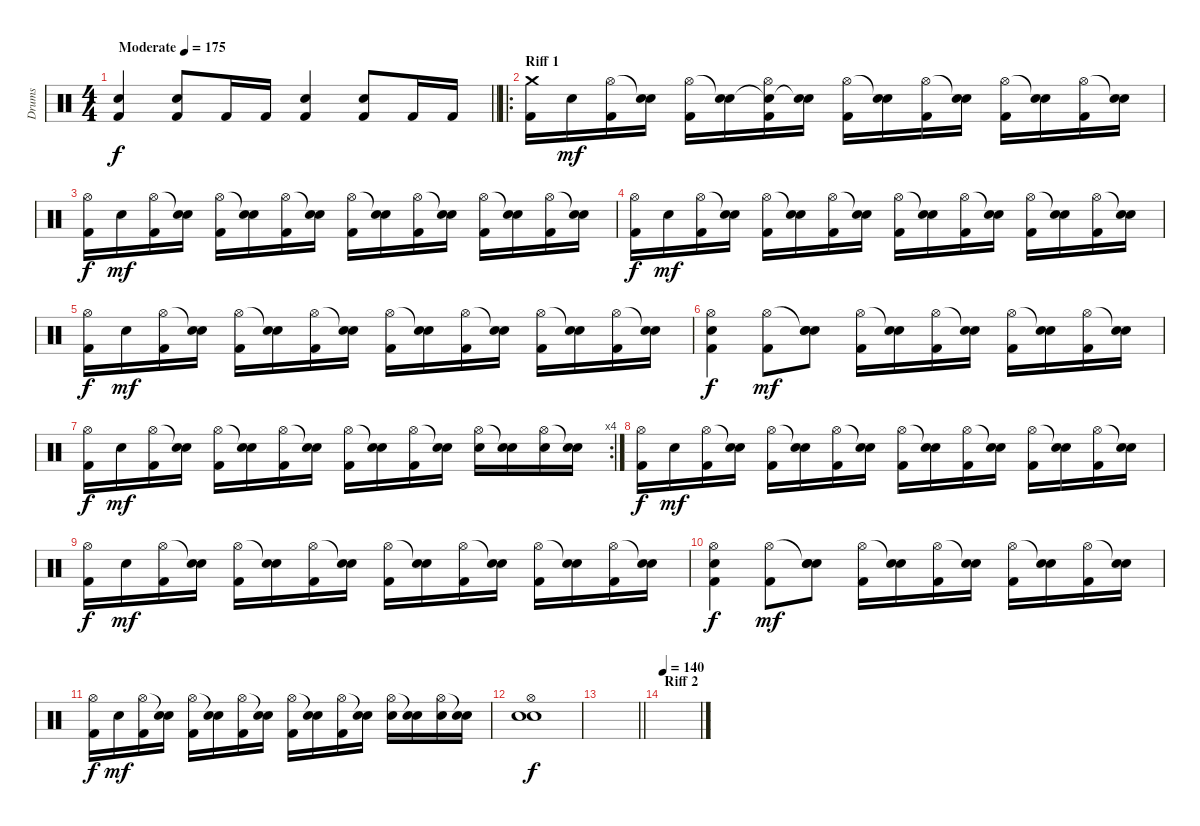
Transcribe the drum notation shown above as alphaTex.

\track ("Drums" "Drums") {instrument percussion}
\staff {score}
\articulation defaults
\ts (4 4)
\tempo (175 "Moderate")
\clef neutral
\barLineRight lightlight
\ks c
("Snare (hit) 2" "Kick (hit) 2").4{dy f} ("Snare (hit) 2" "Kick (hit) 2").8 "Kick (hit) 2".16 "Kick (hit) 2".16 ("Snare (hit) 2" "Kick (hit) 2").4 ("Snare (hit) 2" "Kick (hit) 2").8 "Kick (hit) 2".16 "Kick (hit) 2".16 |
\ro
\section ("" "Riff 1")
("Crash medium (hit)" "Kick (hit) 2").16 "Electric Snare (hit)".16{dy mf} ("Hi-Hat (open)" "Kick (hit) 2").16 ("Snare (hit)"{t} "Electric Snare (hit)").16 ("Hi-Hat (open)" "Kick (hit) 2").16 ("Snare (hit)"{t} "Electric Snare (hit)").16 ("Snare (hit)"{t} "Hi-Hat (open)" "Kick (hit) 2").16 ("Snare (hit)"{t} "Electric Snare (hit)").16 ("Hi-Hat (open)" "Kick (hit) 2").16 ("Snare (hit)"{t} "Electric Snare (hit)").16 ("Hi-Hat (open)" "Kick (hit) 2").16 ("Snare (hit)"{t} "Electric Snare (hit)").16 ("Hi-Hat (open)" "Kick (hit) 2").16 ("Snare (hit)"{t} "Electric Snare (hit)").16 ("Hi-Hat (open)" "Kick (hit) 2").16 ("Snare (hit)"{t} "Electric Snare (hit)").16 |
("Hi-Hat (open)" "Kick (hit) 2").16{dy f} "Electric Snare (hit)".16{dy mf} ("Hi-Hat (open)" "Kick (hit) 2").16 ("Snare (hit)"{t} "Electric Snare (hit)").16 ("Hi-Hat (open)" "Kick (hit) 2").16 ("Snare (hit)"{t} "Electric Snare (hit)").16 ("Hi-Hat (open)" "Kick (hit) 2").16 ("Snare (hit)"{t} "Electric Snare (hit)").16 ("Hi-Hat (open)" "Kick (hit) 2").16 ("Snare (hit)"{t} "Electric Snare (hit)").16 ("Hi-Hat (open)" "Kick (hit) 2").16 ("Snare (hit)"{t} "Electric Snare (hit)").16 ("Hi-Hat (open)" "Kick (hit) 2").16 ("Snare (hit)"{t} "Electric Snare (hit)").16 ("Hi-Hat (open)" "Kick (hit) 2").16 ("Snare (hit)"{t} "Electric Snare (hit)").16 |
("Hi-Hat (open)" "Kick (hit) 2").16{dy f} "Electric Snare (hit)".16{dy mf} ("Hi-Hat (open)" "Kick (hit) 2").16 ("Snare (hit)"{t} "Electric Snare (hit)").16 ("Hi-Hat (open)" "Kick (hit) 2").16 ("Snare (hit)"{t} "Electric Snare (hit)").16 ("Hi-Hat (open)" "Kick (hit) 2").16 ("Snare (hit)"{t} "Electric Snare (hit)").16 ("Hi-Hat (open)" "Kick (hit) 2").16 ("Snare (hit)"{t} "Electric Snare (hit)").16 ("Hi-Hat (open)" "Kick (hit) 2").16 ("Snare (hit)"{t} "Electric Snare (hit)").16 ("Hi-Hat (open)" "Kick (hit) 2").16 ("Snare (hit)"{t} "Electric Snare (hit)").16 ("Hi-Hat (open)" "Kick (hit) 2").16 ("Snare (hit)"{t} "Electric Snare (hit)").16 |
("Hi-Hat (open)" "Kick (hit) 2").16{dy f} "Electric Snare (hit)".16{dy mf} ("Hi-Hat (open)" "Kick (hit) 2").16 ("Snare (hit)"{t} "Electric Snare (hit)").16 ("Hi-Hat (open)" "Kick (hit) 2").16 ("Snare (hit)"{t} "Electric Snare (hit)").16 ("Hi-Hat (open)" "Kick (hit) 2").16 ("Snare (hit)"{t} "Electric Snare (hit)").16 ("Hi-Hat (open)" "Kick (hit) 2").16 ("Snare (hit)"{t} "Electric Snare (hit)").16 ("Hi-Hat (open)" "Kick (hit) 2").16 ("Snare (hit)"{t} "Electric Snare (hit)").16 ("Hi-Hat (open)" "Kick (hit) 2").16 ("Snare (hit)"{t} "Electric Snare (hit)").16 ("Hi-Hat (open)" "Kick (hit) 2").16 ("Snare (hit)"{t} "Electric Snare (hit)").16 |
("Hi-Hat (open)" "Snare (hit) 2" "Kick (hit) 2").4{dy f} ("Hi-Hat (open)" "Kick (hit) 2").8{dy mf} ("Snare (hit)"{t} "Snare (hit) 2" "Electric Snare (hit)").8 ("Hi-Hat (open)" "Kick (hit) 2").16 ("Snare (hit)"{t} "Electric Snare (hit)").16 ("Hi-Hat (open)" "Kick (hit) 2").16 ("Snare (hit)"{t} "Electric Snare (hit)").16 ("Hi-Hat (open)" "Kick (hit) 2").16 ("Snare (hit)"{t} "Electric Snare (hit)").16 ("Hi-Hat (open)" "Kick (hit) 2").16 ("Snare (hit)"{t} "Electric Snare (hit)").16 |
\rc 4
("Hi-Hat (open)" "Kick (hit) 2").16{dy f} "Electric Snare (hit)".16{dy mf} ("Hi-Hat (open)" "Kick (hit) 2").16 ("Snare (hit)"{t} "Electric Snare (hit)").16 ("Hi-Hat (open)" "Kick (hit) 2").16 ("Snare (hit)"{t} "Electric Snare (hit)").16 ("Hi-Hat (open)" "Kick (hit) 2").16 ("Snare (hit)"{t} "Electric Snare (hit)").16 ("Hi-Hat (open)" "Kick (hit) 2").16 ("Snare (hit)"{t} "Electric Snare (hit)").16 ("Hi-Hat (open)" "Kick (hit) 2").16 ("Snare (hit)"{t} "Electric Snare (hit)").16 ("Hi-Hat (open)" "Snare (hit) 2").16 ("Snare (hit)"{t} "Snare (hit) 2").16 ("Hi-Hat (open)" "Snare (hit) 2").16 ("Snare (hit)"{t} "Snare (hit) 2").16 |
("Hi-Hat (open)" "Kick (hit) 2").16{dy f} "Electric Snare (hit)".16{dy mf} ("Hi-Hat (open)" "Kick (hit) 2").16 ("Snare (hit)"{t} "Electric Snare (hit)").16 ("Hi-Hat (open)" "Kick (hit) 2").16 ("Snare (hit)"{t} "Electric Snare (hit)").16 ("Hi-Hat (open)" "Kick (hit) 2").16 ("Snare (hit)"{t} "Electric Snare (hit)").16 ("Hi-Hat (open)" "Kick (hit) 2").16 ("Snare (hit)"{t} "Electric Snare (hit)").16 ("Hi-Hat (open)" "Kick (hit) 2").16 ("Snare (hit)"{t} "Electric Snare (hit)").16 ("Hi-Hat (open)" "Kick (hit) 2").16 ("Snare (hit)"{t} "Electric Snare (hit)").16 ("Hi-Hat (open)" "Kick (hit) 2").16 ("Snare (hit)"{t} "Electric Snare (hit)").16 |
("Hi-Hat (open)" "Kick (hit) 2").16{dy f} "Electric Snare (hit)".16{dy mf} ("Hi-Hat (open)" "Kick (hit) 2").16 ("Snare (hit)"{t} "Electric Snare (hit)").16 ("Hi-Hat (open)" "Kick (hit) 2").16 ("Snare (hit)"{t} "Electric Snare (hit)").16 ("Hi-Hat (open)" "Kick (hit) 2").16 ("Snare (hit)"{t} "Electric Snare (hit)").16 ("Hi-Hat (open)" "Kick (hit) 2").16 ("Snare (hit)"{t} "Electric Snare (hit)").16 ("Hi-Hat (open)" "Kick (hit) 2").16 ("Snare (hit)"{t} "Electric Snare (hit)").16 ("Hi-Hat (open)" "Kick (hit) 2").16 ("Snare (hit)"{t} "Electric Snare (hit)").16 ("Hi-Hat (open)" "Kick (hit) 2").16 ("Snare (hit)"{t} "Electric Snare (hit)").16 |
("Hi-Hat (open)" "Snare (hit) 2" "Kick (hit) 2").4{dy f} ("Hi-Hat (open)" "Kick (hit) 2").8{dy mf} ("Snare (hit)"{t} "Snare (hit) 2" "Electric Snare (hit)").8 ("Hi-Hat (open)" "Kick (hit) 2").16 ("Snare (hit)"{t} "Electric Snare (hit)").16 ("Hi-Hat (open)" "Kick (hit) 2").16 ("Snare (hit)"{t} "Electric Snare (hit)").16 ("Hi-Hat (open)" "Kick (hit) 2").16 ("Snare (hit)"{t} "Electric Snare (hit)").16 ("Hi-Hat (open)" "Kick (hit) 2").16 ("Snare (hit)"{t} "Electric Snare (hit)").16 |
("Hi-Hat (open)" "Kick (hit) 2").16{dy f} "Electric Snare (hit)".16{dy mf} ("Hi-Hat (open)" "Kick (hit) 2").16 ("Snare (hit)"{t} "Electric Snare (hit)").16 ("Hi-Hat (open)" "Kick (hit) 2").16 ("Snare (hit)"{t} "Electric Snare (hit)").16 ("Hi-Hat (open)" "Kick (hit) 2").16 ("Snare (hit)"{t} "Electric Snare (hit)").16 ("Hi-Hat (open)" "Kick (hit) 2").16 ("Snare (hit)"{t} "Electric Snare (hit)").16 ("Hi-Hat (open)" "Kick (hit) 2").16 ("Snare (hit)"{t} "Electric Snare (hit)").16 ("Hi-Hat (open)" "Snare (hit) 2").16 ("Snare (hit)"{t} "Snare (hit) 2").16 ("Hi-Hat (open)" "Snare (hit) 2").16 ("Snare (hit)"{t} "Snare (hit) 2").16 |
("Hi-Hat (open)" "Electric Snare (hit)" "Snare (hit) 2").1{dy f} |
\barLineRight lightlight
|
\section ("" "Riff 2")
\tempo 140
